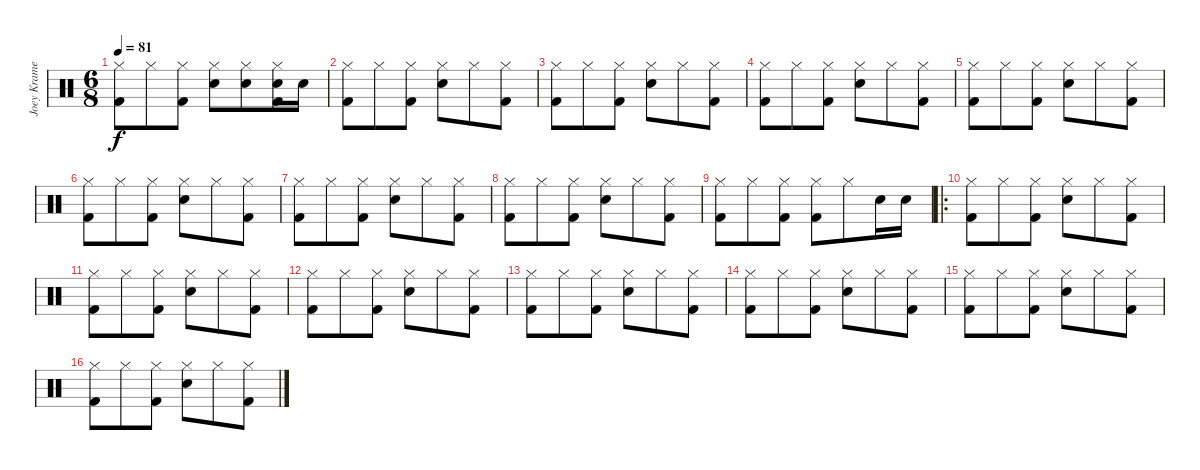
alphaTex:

\track ("Joey Kramer" "Joey Krame") {instrument percussion}
\staff {score}
\articulation defaults
\ts (6 8)
\tempo 81
\clef neutral
\ks c
("Hi-Hat (closed)" "Kick (hit) 2").8{dy f} "Hi-Hat (closed)".8 ("Hi-Hat (closed)" "Kick (hit) 2").8 ("Hi-Hat (closed)" "Snare (hit) 2").8 ("Hi-Hat (closed)" "Snare (hit) 2").8 ("Hi-Hat (closed)" "Kick (hit) 2" "Snare (hit) 2").16 "Snare (hit) 2".16 |
("Hi-Hat (closed)" "Kick (hit) 2").8 "Hi-Hat (closed)".8 ("Hi-Hat (closed)" "Kick (hit) 2").8 ("Hi-Hat (closed)" "Snare (hit) 2").8 "Hi-Hat (closed)".8 ("Hi-Hat (closed)" "Kick (hit) 2").8 |
("Hi-Hat (closed)" "Kick (hit) 2").8 "Hi-Hat (closed)".8 ("Hi-Hat (closed)" "Kick (hit) 2").8 ("Hi-Hat (closed)" "Snare (hit) 2").8 "Hi-Hat (closed)".8 ("Hi-Hat (closed)" "Kick (hit) 2").8 |
("Hi-Hat (closed)" "Kick (hit) 2").8 "Hi-Hat (closed)".8 ("Hi-Hat (closed)" "Kick (hit) 2").8 ("Hi-Hat (closed)" "Snare (hit) 2").8 "Hi-Hat (closed)".8 ("Hi-Hat (closed)" "Kick (hit) 2").8 |
("Hi-Hat (closed)" "Kick (hit) 2").8 "Hi-Hat (closed)".8 ("Hi-Hat (closed)" "Kick (hit) 2").8 ("Hi-Hat (closed)" "Snare (hit) 2").8 "Hi-Hat (closed)".8 ("Hi-Hat (closed)" "Kick (hit) 2").8 |
("Hi-Hat (closed)" "Kick (hit) 2").8 "Hi-Hat (closed)".8 ("Hi-Hat (closed)" "Kick (hit) 2").8 ("Hi-Hat (closed)" "Snare (hit) 2").8 "Hi-Hat (closed)".8 ("Hi-Hat (closed)" "Kick (hit) 2").8 |
("Hi-Hat (closed)" "Kick (hit) 2").8 "Hi-Hat (closed)".8 ("Hi-Hat (closed)" "Kick (hit) 2").8 ("Hi-Hat (closed)" "Snare (hit) 2").8 "Hi-Hat (closed)".8 ("Hi-Hat (closed)" "Kick (hit) 2").8 |
("Hi-Hat (closed)" "Kick (hit) 2").8 "Hi-Hat (closed)".8 ("Hi-Hat (closed)" "Kick (hit) 2").8 ("Hi-Hat (closed)" "Snare (hit) 2").8 "Hi-Hat (closed)".8 ("Hi-Hat (closed)" "Kick (hit) 2").8 |
("Hi-Hat (closed)" "Kick (hit) 2").8 "Hi-Hat (closed)".8 ("Hi-Hat (closed)" "Kick (hit) 2").8 ("Hi-Hat (closed)" "Kick (hit) 2").8 "Hi-Hat (closed)".8 "Snare (hit) 2".16 "Snare (hit) 2".16 |
\ro
("Hi-Hat (closed)" "Kick (hit) 2").8 "Hi-Hat (closed)".8 ("Hi-Hat (closed)" "Kick (hit) 2").8 ("Hi-Hat (closed)" "Snare (hit) 2").8 "Hi-Hat (closed)".8 ("Hi-Hat (closed)" "Kick (hit) 2").8 |
("Hi-Hat (closed)" "Kick (hit) 2").8 "Hi-Hat (closed)".8 ("Hi-Hat (closed)" "Kick (hit) 2").8 ("Hi-Hat (closed)" "Snare (hit) 2").8 "Hi-Hat (closed)".8 ("Hi-Hat (closed)" "Kick (hit) 2").8 |
("Hi-Hat (closed)" "Kick (hit) 2").8 "Hi-Hat (closed)".8 ("Hi-Hat (closed)" "Kick (hit) 2").8 ("Hi-Hat (closed)" "Snare (hit) 2").8 "Hi-Hat (closed)".8 ("Hi-Hat (closed)" "Kick (hit) 2").8 |
("Hi-Hat (closed)" "Kick (hit) 2").8 "Hi-Hat (closed)".8 ("Hi-Hat (closed)" "Kick (hit) 2").8 ("Hi-Hat (closed)" "Snare (hit) 2").8 "Hi-Hat (closed)".8 ("Hi-Hat (closed)" "Kick (hit) 2").8 |
("Hi-Hat (closed)" "Kick (hit) 2").8 "Hi-Hat (closed)".8 ("Hi-Hat (closed)" "Kick (hit) 2").8 ("Hi-Hat (closed)" "Snare (hit) 2").8 "Hi-Hat (closed)".8 ("Hi-Hat (closed)" "Kick (hit) 2").8 |
("Hi-Hat (closed)" "Kick (hit) 2").8 "Hi-Hat (closed)".8 ("Hi-Hat (closed)" "Kick (hit) 2").8 ("Hi-Hat (closed)" "Snare (hit) 2").8 "Hi-Hat (closed)".8 ("Hi-Hat (closed)" "Kick (hit) 2").8 |
("Hi-Hat (closed)" "Kick (hit) 2").8 "Hi-Hat (closed)".8 ("Hi-Hat (closed)" "Kick (hit) 2").8 ("Hi-Hat (closed)" "Snare (hit) 2").8 "Hi-Hat (closed)".8 ("Hi-Hat (closed)" "Kick (hit) 2").8
